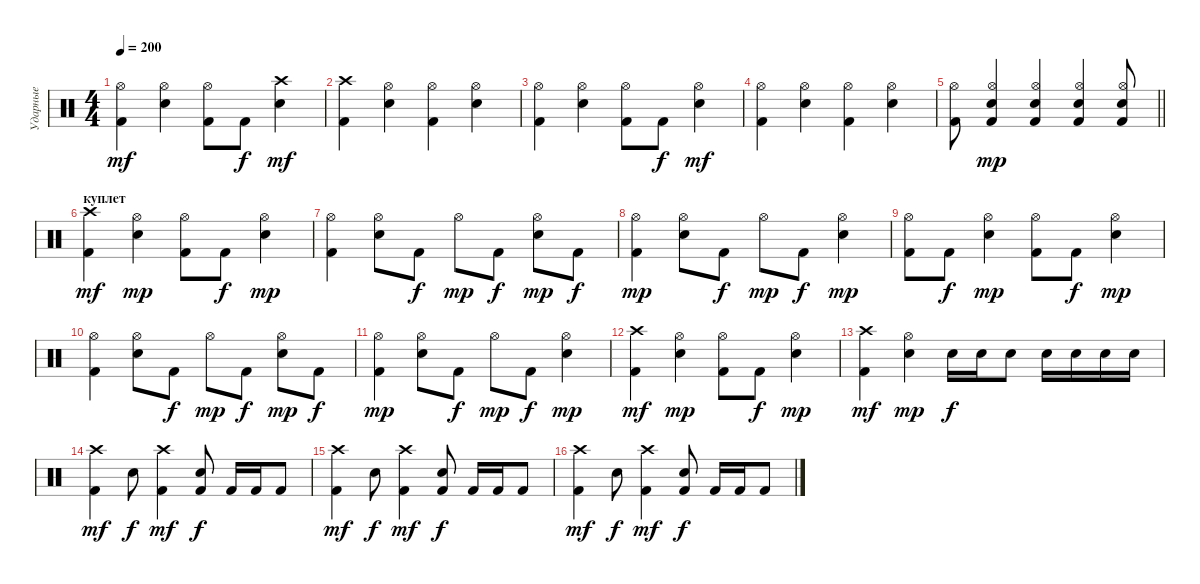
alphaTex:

\track ("Ударные" "Ударные") {instrument percussion}
\staff {score}
\articulation defaults
\ts (4 4)
\tempo 200
\clef neutral
\ks c
("Kick (hit) 2" "Hi-Hat (open)").4{dy mf} ("Electric Snare (hit)" "Hi-Hat (open)").4 ("Kick (hit) 2" "Hi-Hat (open)").8 "Kick (hit) 2".8{dy f} ("Electric Snare (hit)" "Crash high (hit)").4{dy mf} |
("Kick (hit) 2" "Crash high (hit)").4 ("Electric Snare (hit)" "Hi-Hat (open)").4 ("Kick (hit) 2" "Hi-Hat (open)").4 ("Electric Snare (hit)" "Hi-Hat (open)").4 |
("Kick (hit) 2" "Hi-Hat (open)").4 ("Electric Snare (hit)" "Hi-Hat (open)").4 ("Kick (hit) 2" "Hi-Hat (open)").8 "Kick (hit) 2".8{dy f} ("Electric Snare (hit)" "Hi-Hat (open)").4{dy mf} |
("Kick (hit) 2" "Hi-Hat (open)").4 ("Electric Snare (hit)" "Hi-Hat (open)").4 ("Kick (hit) 2" "Hi-Hat (open)").4 ("Electric Snare (hit)" "Hi-Hat (open)").4 |
\barLineRight lightlight
("Kick (hit) 2" "Hi-Hat (open)").8 ("Kick (hit) 2" "Electric Snare (hit)" "Hi-Hat (open)").4{dy mp} ("Kick (hit) 2" "Electric Snare (hit)" "Hi-Hat (open)").4 ("Kick (hit) 2" "Electric Snare (hit)" "Hi-Hat (open)").4 ("Kick (hit) 2" "Electric Snare (hit)" "Hi-Hat (open)").8 |
\section ("" "куплет")
("Kick (hit) 2" "Crash high (hit)").4{dy mf} ("Electric Snare (hit)" "Hi-Hat (open)").4{dy mp} ("Kick (hit) 2" "Hi-Hat (open)").8 "Kick (hit) 2".8{dy f} ("Electric Snare (hit)" "Hi-Hat (open)").4{dy mp} |
("Kick (hit) 2" "Hi-Hat (open)").4 ("Electric Snare (hit)" "Hi-Hat (open)").8 "Kick (hit) 2".8{dy f} "Hi-Hat (open)".8{dy mp} "Kick (hit) 2".8{dy f} ("Electric Snare (hit)" "Hi-Hat (open)").8{dy mp} "Kick (hit) 2".8{dy f} |
("Kick (hit) 2" "Hi-Hat (open)").4{dy mp} ("Electric Snare (hit)" "Hi-Hat (open)").8 "Kick (hit) 2".8{dy f} "Hi-Hat (open)".8{dy mp} "Kick (hit) 2".8{dy f} ("Electric Snare (hit)" "Hi-Hat (open)").4{dy mp} |
("Kick (hit) 2" "Hi-Hat (open)").8 "Kick (hit) 2".8{dy f} ("Electric Snare (hit)" "Hi-Hat (open)").4{dy mp} ("Kick (hit) 2" "Hi-Hat (open)").8 "Kick (hit) 2".8{dy f} ("Electric Snare (hit)" "Hi-Hat (open)").4{dy mp} |
("Kick (hit) 2" "Hi-Hat (open)").4 ("Electric Snare (hit)" "Hi-Hat (open)").8 "Kick (hit) 2".8{dy f} "Hi-Hat (open)".8{dy mp} "Kick (hit) 2".8{dy f} ("Electric Snare (hit)" "Hi-Hat (open)").8{dy mp} "Kick (hit) 2".8{dy f} |
("Kick (hit) 2" "Hi-Hat (open)").4{dy mp} ("Electric Snare (hit)" "Hi-Hat (open)").8 "Kick (hit) 2".8{dy f} "Hi-Hat (open)".8{dy mp} "Kick (hit) 2".8{dy f} ("Electric Snare (hit)" "Hi-Hat (open)").4{dy mp} |
("Kick (hit) 2" "Crash high (hit)").4{dy mf} ("Electric Snare (hit)" "Hi-Hat (open)").4{dy mp} ("Kick (hit) 2" "Hi-Hat (open)").8 "Kick (hit) 2".8{dy f} ("Electric Snare (hit)" "Hi-Hat (open)").4{dy mp} |
("Kick (hit) 2" "Crash high (hit)").4{dy mf} ("Electric Snare (hit)" "Hi-Hat (open)").4{dy mp} "Electric Snare (hit)".16{dy f} "Electric Snare (hit)".16 "Electric Snare (hit)".8 "Electric Snare (hit)".16 "Electric Snare (hit)".16 "Electric Snare (hit)".16 "Electric Snare (hit)".16 |
("Kick (hit) 2" "Crash high (hit)").4{dy mf} "Electric Snare (hit)".8{dy f} ("Kick (hit) 2" "Crash high (hit)").4{dy mf} ("Kick (hit) 2" "Electric Snare (hit)").8{dy f} "Kick (hit) 2".16 "Kick (hit) 2".16 "Kick (hit) 2".8 |
("Kick (hit) 2" "Crash high (hit)").4{dy mf} "Electric Snare (hit)".8{dy f} ("Kick (hit) 2" "Crash high (hit)").4{dy mf} ("Kick (hit) 2" "Electric Snare (hit)").8{dy f} "Kick (hit) 2".16 "Kick (hit) 2".16 "Kick (hit) 2".8 |
("Kick (hit) 2" "Crash high (hit)").4{dy mf} "Electric Snare (hit)".8{dy f} ("Kick (hit) 2" "Crash high (hit)").4{dy mf} ("Kick (hit) 2" "Electric Snare (hit)").8{dy f} "Kick (hit) 2".16 "Kick (hit) 2".16 "Kick (hit) 2".8
